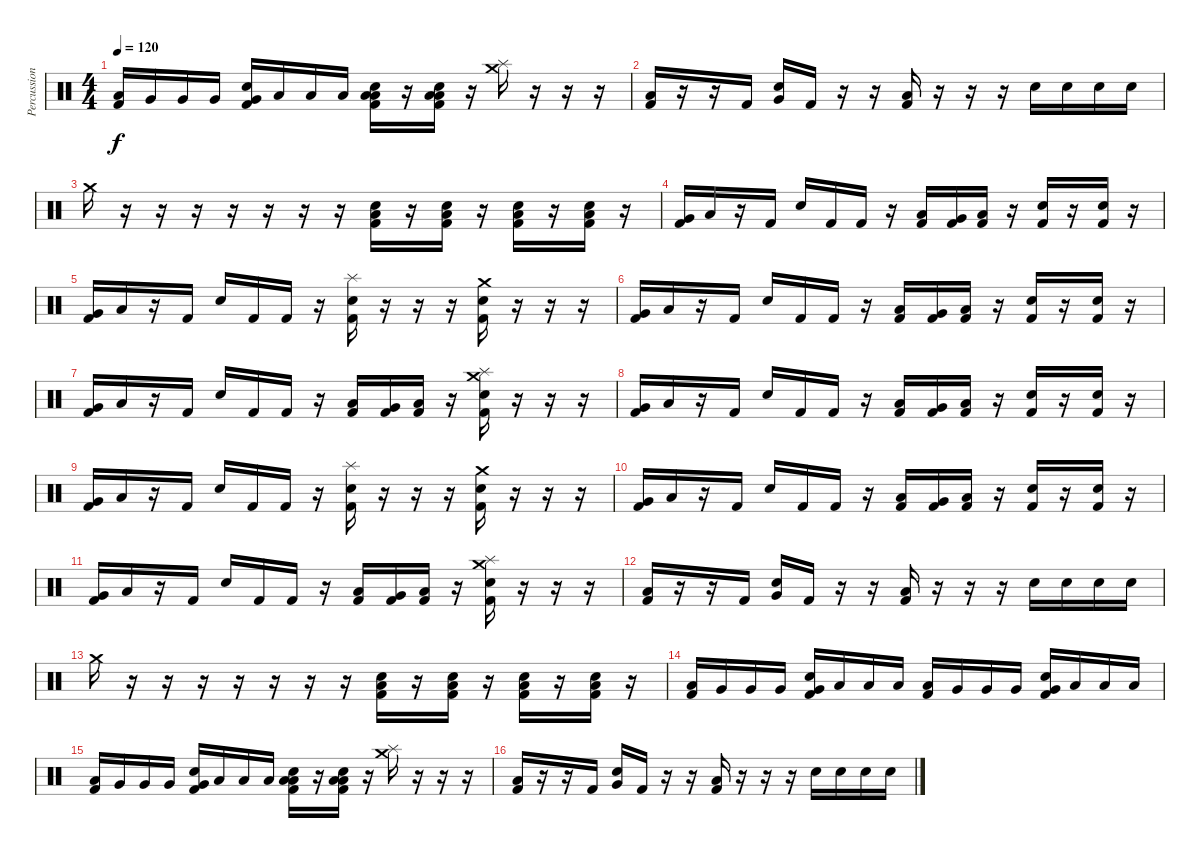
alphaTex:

\track ("Percussion" "Percussion") {instrument percussion}
\staff {score}
\articulation defaults
\ts (4 4)
\tempo 120
\clef neutral
\ks c
("Low Tom (hit)" "Kick (hit) 2").16{dy f} "Very Low Tom (hit)".16 "Very Low Tom (hit)".16 "Very Low Tom (hit)".16 ("Snare (hit) 2" "Very Low Tom (hit)" "Kick (hit) 2").16 "Low Floor Tom (hit)".16 "Low Floor Tom (hit)".16 "Low Floor Tom (hit)".16 ("Low Tom (hit)" "Low Tom (hit)" "Snare (hit) 2" "Kick (hit) 2").16 r.16 ("Low Tom (hit)" "Low Tom (hit)" "Snare (hit) 2" "Kick (hit) 2").16 r.16 ("Splash (hit)" "Crash medium (hit)").16 r.16 r.16 r.16 |
("Low Tom (hit)" "Kick (hit) 2").16 r.16 r.16 "Kick (hit) 2".16 ("Snare (hit) 2" "Very Low Tom (hit)").16 "Kick (hit) 2".16 r.16 r.16 ("Low Tom (hit)" "Kick (hit) 2").16 r.16 r.16 r.16 "Snare (hit) 2".16 "Snare (hit) 2".16 "Snare (hit) 2".16 "Snare (hit) 2".16 |
"Crash medium (hit)".16 r.16 r.16 r.16 r.16 r.16 r.16 r.16 ("Snare (hit) 2" "Low Tom (hit)" "Kick (hit) 2").16 r.16 ("Snare (hit) 2" "Low Tom (hit)" "Kick (hit) 2").16 r.16 ("Snare (hit) 2" "Low Tom (hit)" "Kick (hit) 2").16 r.16 ("Snare (hit) 2" "Low Tom (hit)" "Kick (hit) 2").16 r.16 |
("Very Low Tom (hit)" "Kick (hit) 2").16 "Low Floor Tom (hit)".16 r.16 "Kick (hit) 2".16 "Snare (hit) 2".16 "Kick (hit) 2".16 "Kick (hit) 2".16 r.16 ("Low Tom (hit)" "Kick (hit) 2").16 ("Very Low Tom (hit)" "Kick (hit) 2").16 ("Low Floor Tom (hit)" "Kick (hit) 2").16 r.16 ("Snare (hit) 2" "Kick (hit) 2").16 r.16 ("Snare (hit) 2" "Kick (hit) 2").16 r.16 |
("Very Low Tom (hit)" "Kick (hit) 2").16 "Low Floor Tom (hit)".16 r.16 "Kick (hit) 2".16 "Snare (hit) 2".16 "Kick (hit) 2".16 "Kick (hit) 2".16 r.16 ("Splash (hit)" "Snare (hit) 2" "Kick (hit) 2").16 r.16 r.16 r.16 ("Crash medium (hit)" "Snare (hit) 2" "Kick (hit) 2").16 r.16 r.16 r.16 |
("Very Low Tom (hit)" "Kick (hit) 2").16 "Low Floor Tom (hit)".16 r.16 "Kick (hit) 2".16 "Snare (hit) 2".16 "Kick (hit) 2".16 "Kick (hit) 2".16 r.16 ("Low Tom (hit)" "Kick (hit) 2").16 ("Very Low Tom (hit)" "Kick (hit) 2").16 ("Low Floor Tom (hit)" "Kick (hit) 2").16 r.16 ("Snare (hit) 2" "Kick (hit) 2").16 r.16 ("Snare (hit) 2" "Kick (hit) 2").16 r.16 |
("Very Low Tom (hit)" "Kick (hit) 2").16 "Low Floor Tom (hit)".16 r.16 "Kick (hit) 2".16 "Snare (hit) 2".16 "Kick (hit) 2".16 "Kick (hit) 2".16 r.16 ("Low Tom (hit)" "Kick (hit) 2").16 ("Very Low Tom (hit)" "Kick (hit) 2").16 ("Low Floor Tom (hit)" "Kick (hit) 2").16 r.16 ("Crash medium (hit)" "Splash (hit)" "Snare (hit) 2" "Kick (hit) 2").16 r.16 r.16 r.16 |
("Very Low Tom (hit)" "Kick (hit) 2").16 "Low Floor Tom (hit)".16 r.16 "Kick (hit) 2".16 "Snare (hit) 2".16 "Kick (hit) 2".16 "Kick (hit) 2".16 r.16 ("Low Tom (hit)" "Kick (hit) 2").16 ("Very Low Tom (hit)" "Kick (hit) 2").16 ("Low Floor Tom (hit)" "Kick (hit) 2").16 r.16 ("Snare (hit) 2" "Kick (hit) 2").16 r.16 ("Snare (hit) 2" "Kick (hit) 2").16 r.16 |
("Very Low Tom (hit)" "Kick (hit) 2").16 "Low Floor Tom (hit)".16 r.16 "Kick (hit) 2".16 "Snare (hit) 2".16 "Kick (hit) 2".16 "Kick (hit) 2".16 r.16 ("Splash (hit)" "Snare (hit) 2" "Kick (hit) 2").16 r.16 r.16 r.16 ("Crash medium (hit)" "Snare (hit) 2" "Kick (hit) 2").16 r.16 r.16 r.16 |
("Very Low Tom (hit)" "Kick (hit) 2").16 "Low Floor Tom (hit)".16 r.16 "Kick (hit) 2".16 "Snare (hit) 2".16 "Kick (hit) 2".16 "Kick (hit) 2".16 r.16 ("Low Tom (hit)" "Kick (hit) 2").16 ("Very Low Tom (hit)" "Kick (hit) 2").16 ("Low Floor Tom (hit)" "Kick (hit) 2").16 r.16 ("Snare (hit) 2" "Kick (hit) 2").16 r.16 ("Snare (hit) 2" "Kick (hit) 2").16 r.16 |
("Very Low Tom (hit)" "Kick (hit) 2").16 "Low Floor Tom (hit)".16 r.16 "Kick (hit) 2".16 "Snare (hit) 2".16 "Kick (hit) 2".16 "Kick (hit) 2".16 r.16 ("Low Tom (hit)" "Kick (hit) 2").16 ("Very Low Tom (hit)" "Kick (hit) 2").16 ("Low Floor Tom (hit)" "Kick (hit) 2").16 r.16 ("Crash medium (hit)" "Splash (hit)" "Snare (hit) 2" "Kick (hit) 2").16 r.16 r.16 r.16 |
("Low Tom (hit)" "Kick (hit) 2").16 r.16 r.16 "Kick (hit) 2".16 ("Snare (hit) 2" "Very Low Tom (hit)").16 "Kick (hit) 2".16 r.16 r.16 ("Low Tom (hit)" "Kick (hit) 2").16 r.16 r.16 r.16 "Snare (hit) 2".16 "Snare (hit) 2".16 "Snare (hit) 2".16 "Snare (hit) 2".16 |
"Crash medium (hit)".16 r.16 r.16 r.16 r.16 r.16 r.16 r.16 ("Snare (hit) 2" "Low Tom (hit)" "Kick (hit) 2").16 r.16 ("Snare (hit) 2" "Low Tom (hit)" "Kick (hit) 2").16 r.16 ("Snare (hit) 2" "Low Tom (hit)" "Kick (hit) 2").16 r.16 ("Snare (hit) 2" "Low Tom (hit)" "Kick (hit) 2").16 r.16 |
("Low Tom (hit)" "Kick (hit) 2").16 "Very Low Tom (hit)".16 "Very Low Tom (hit)".16 "Very Low Tom (hit)".16 ("Snare (hit) 2" "Very Low Tom (hit)" "Kick (hit) 2").16 "Low Floor Tom (hit)".16 "Low Floor Tom (hit)".16 "Low Floor Tom (hit)".16 ("Low Tom (hit)" "Kick (hit) 2").16 "Very Low Tom (hit)".16 "Very Low Tom (hit)".16 "Very Low Tom (hit)".16 ("Snare (hit) 2" "Very Low Tom (hit)" "Kick (hit) 2").16 "Low Floor Tom (hit)".16 "Low Floor Tom (hit)".16 "Low Floor Tom (hit)".16 |
("Low Tom (hit)" "Kick (hit) 2").16 "Very Low Tom (hit)".16 "Very Low Tom (hit)".16 "Very Low Tom (hit)".16 ("Snare (hit) 2" "Very Low Tom (hit)" "Kick (hit) 2").16 "Low Floor Tom (hit)".16 "Low Floor Tom (hit)".16 "Low Floor Tom (hit)".16 ("Low Tom (hit)" "Low Tom (hit)" "Snare (hit) 2" "Kick (hit) 2").16 r.16 ("Low Tom (hit)" "Low Tom (hit)" "Snare (hit) 2" "Kick (hit) 2").16 r.16 ("Splash (hit)" "Crash medium (hit)").16 r.16 r.16 r.16 |
("Low Tom (hit)" "Kick (hit) 2").16 r.16 r.16 "Kick (hit) 2".16 ("Snare (hit) 2" "Very Low Tom (hit)").16 "Kick (hit) 2".16 r.16 r.16 ("Low Tom (hit)" "Kick (hit) 2").16 r.16 r.16 r.16 "Snare (hit) 2".16 "Snare (hit) 2".16 "Snare (hit) 2".16 "Snare (hit) 2".16
